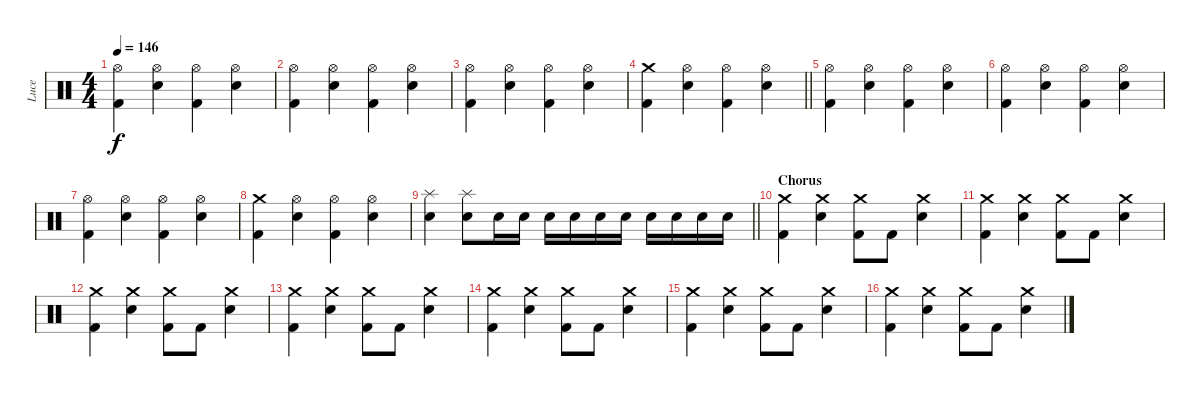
\track ("Luce" "Luce") {instrument percussion}
\staff {score}
\articulation defaults
\ts (4 4)
\tempo 146
\clef neutral
\ks c
("Hi-Hat (open)" "Kick (hit) 2").4{dy f} ("Hi-Hat (open)" "Electric Snare (hit)").4 ("Hi-Hat (open)" "Kick (hit) 2").4 ("Hi-Hat (open)" "Electric Snare (hit)").4 |
("Kick (hit) 2" "Hi-Hat (open)").4 ("Electric Snare (hit)" "Hi-Hat (open)").4 ("Kick (hit) 2" "Hi-Hat (open)").4 ("Electric Snare (hit)" "Hi-Hat (open)").4 |
("Kick (hit) 2" "Hi-Hat (open)").4 ("Electric Snare (hit)" "Hi-Hat (open)").4 ("Kick (hit) 2" "Hi-Hat (open)").4 ("Electric Snare (hit)" "Hi-Hat (open)").4 |
\barLineRight lightlight
("Crash medium (hit)" "Kick (hit) 2").4 ("Hi-Hat (open)" "Electric Snare (hit)").4 ("Hi-Hat (open)" "Kick (hit) 2").4 ("Hi-Hat (open)" "Electric Snare (hit)").4 |
\section ("" "")
("Hi-Hat (open)" "Kick (hit) 2").4 ("Hi-Hat (open)" "Electric Snare (hit)").4 ("Hi-Hat (open)" "Kick (hit) 2").4 ("Hi-Hat (open)" "Electric Snare (hit)").4 |
("Kick (hit) 2" "Hi-Hat (open)").4 ("Electric Snare (hit)" "Hi-Hat (open)").4 ("Kick (hit) 2" "Hi-Hat (open)").4 ("Electric Snare (hit)" "Hi-Hat (open)").4 |
("Kick (hit) 2" "Hi-Hat (open)").4 ("Electric Snare (hit)" "Hi-Hat (open)").4 ("Kick (hit) 2" "Hi-Hat (open)").4 ("Electric Snare (hit)" "Hi-Hat (open)").4 |
("Crash medium (hit)" "Kick (hit) 2").4 ("Hi-Hat (open)" "Electric Snare (hit)").4 ("Hi-Hat (open)" "Kick (hit) 2").4 ("Hi-Hat (open)" "Electric Snare (hit)").4 |
\barLineRight lightlight
("Electric Snare (hit)" "Splash (hit)").4 ("Electric Snare (hit)" "Splash (hit)").8 "Electric Snare (hit)".16 "Electric Snare (hit)".16 "Electric Snare (hit)".16 "Electric Snare (hit)".16 "Electric Snare (hit)".16 "Electric Snare (hit)".16 "Electric Snare (hit)".16 "Electric Snare (hit)".16 "Electric Snare (hit)".16 "Electric Snare (hit)".16 |
\section ("" "Chorus")
("Crash medium (hit)" "Kick (hit) 2").4 ("Crash medium (hit)" "Electric Snare (hit)").4 ("Kick (hit) 2" "Crash medium (hit)").8 "Kick (hit) 2".8 ("Crash medium (hit)" "Electric Snare (hit)").4 |
("Kick (hit) 2" "Crash medium (hit)").4 ("Crash medium (hit)" "Electric Snare (hit)").4 ("Kick (hit) 2" "Crash medium (hit)").8 "Kick (hit) 2".8 ("Crash medium (hit)" "Electric Snare (hit)").4 |
("Kick (hit) 2" "Crash medium (hit)").4 ("Electric Snare (hit)" "Crash medium (hit)").4 ("Kick (hit) 2" "Crash medium (hit)").8 "Kick (hit) 2".8 ("Electric Snare (hit)" "Crash medium (hit)").4 |
("Kick (hit) 2" "Crash medium (hit)").4 ("Electric Snare (hit)" "Crash medium (hit)").4 ("Kick (hit) 2" "Crash medium (hit)").8 "Kick (hit) 2".8 ("Electric Snare (hit)" "Crash medium (hit)").4 |
("Kick (hit) 2" "Crash medium (hit)").4 ("Crash medium (hit)" "Electric Snare (hit)").4 ("Kick (hit) 2" "Crash medium (hit)").8 "Kick (hit) 2".8 ("Crash medium (hit)" "Electric Snare (hit)").4 |
("Kick (hit) 2" "Crash medium (hit)").4 ("Electric Snare (hit)" "Crash medium (hit)").4 ("Kick (hit) 2" "Crash medium (hit)").8 "Kick (hit) 2".8 ("Electric Snare (hit)" "Crash medium (hit)").4 |
("Kick (hit) 2" "Crash medium (hit)").4 ("Crash medium (hit)" "Electric Snare (hit)").4 ("Kick (hit) 2" "Crash medium (hit)").8 "Kick (hit) 2".8 ("Crash medium (hit)" "Electric Snare (hit)").4
